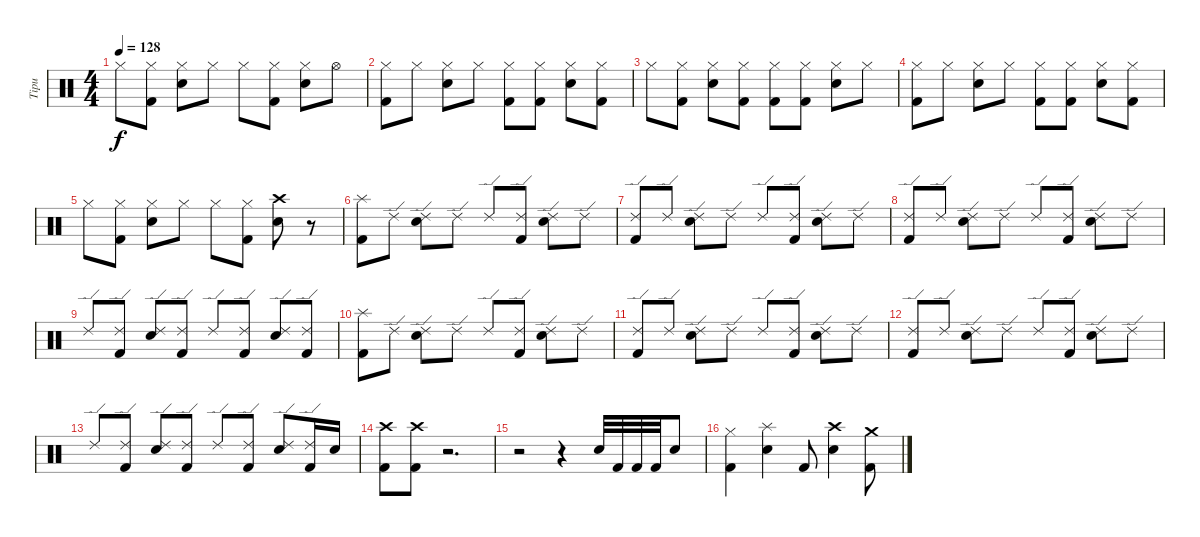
\track ("Tipu" "Tipu") {instrument percussion}
\staff {score}
\articulation defaults
\ts (4 4)
\tempo 128
\clef neutral
\ks c "Hi-Hat (closed)".8{dy f}
("Hi-Hat (closed)" "Kick (hit) 2").8 ("Hi-Hat (closed)" "Electric Snare (hit)").8 "Hi-Hat (closed)".8 "Hi-Hat (closed)".8 ("Hi-Hat (closed)" "Kick (hit) 2").8 ("Hi-Hat (closed)" "Electric Snare (hit)").8 "Hi-Hat (open)".8 |
("Hi-Hat (closed)" "Kick (hit) 2").8 "Hi-Hat (closed)".8 ("Hi-Hat (closed)" "Electric Snare (hit)").8 "Hi-Hat (closed)".8 ("Hi-Hat (closed)" "Kick (hit) 2").8 ("Hi-Hat (closed)" "Kick (hit) 2").8 ("Hi-Hat (closed)" "Electric Snare (hit)").8 ("Hi-Hat (closed)" "Kick (hit) 2").8 |
"Hi-Hat (closed)".8 ("Hi-Hat (closed)" "Kick (hit) 2").8 ("Hi-Hat (closed)" "Electric Snare (hit)").8 ("Hi-Hat (closed)" "Kick (hit) 2").8 ("Hi-Hat (closed)" "Kick (hit) 2").8 ("Hi-Hat (closed)" "Kick (hit) 2").8 ("Hi-Hat (closed)" "Electric Snare (hit)").8 "Hi-Hat (closed)".8 |
("Hi-Hat (closed)" "Kick (hit) 2").8 "Hi-Hat (closed)".8 ("Hi-Hat (closed)" "Electric Snare (hit)").8 "Hi-Hat (closed)".8 ("Hi-Hat (closed)" "Kick (hit) 2").8 ("Hi-Hat (closed)" "Kick (hit) 2").8 ("Hi-Hat (closed)" "Electric Snare (hit)").8 ("Hi-Hat (closed)" "Kick (hit) 2").8 |
"Hi-Hat (closed)".8 ("Hi-Hat (closed)" "Kick (hit) 2").8 ("Hi-Hat (closed)" "Electric Snare (hit)").8 "Hi-Hat (closed)".8 "Hi-Hat (closed)".8 ("Hi-Hat (closed)" "Kick (hit) 2").8 ("Crash high (hit)" "Electric Snare (hit)").8 r.8 |
("Splash (hit)" "Kick (hit) 2").8 "Ride (edge) 2".8 ("Ride (edge) 2" "Electric Snare (hit)").8 "Ride (edge) 2".8 "Ride (edge) 2".8 ("Ride (edge) 2" "Kick (hit) 2").8 ("Ride (edge) 2" "Electric Snare (hit)").8 "Ride (edge) 2".8 |
("Ride (edge) 2" "Kick (hit) 2").8 "Ride (edge) 2".8 ("Ride (edge) 2" "Electric Snare (hit)").8 "Ride (edge) 2".8 "Ride (edge) 2".8 ("Ride (edge) 2" "Kick (hit) 2").8 ("Ride (edge) 2" "Electric Snare (hit)").8 "Ride (edge) 2".8 |
("Ride (edge) 2" "Kick (hit) 2").8 "Ride (edge) 2".8 ("Ride (edge) 2" "Electric Snare (hit)").8 "Ride (edge) 2".8 "Ride (edge) 2".8 ("Ride (edge) 2" "Kick (hit) 2").8 ("Ride (edge) 2" "Electric Snare (hit)").8 "Ride (edge) 2".8 |
"Ride (edge) 2".8 ("Ride (edge) 2" "Kick (hit) 2").8 ("Ride (edge) 2" "Electric Snare (hit)").8 ("Ride (edge) 2" "Kick (hit) 2").8 "Ride (edge) 2".8 ("Ride (edge) 2" "Kick (hit) 2").8 ("Ride (edge) 2" "Electric Snare (hit)").8 ("Ride (edge) 2" "Kick (hit) 2").8 |
("Splash (hit)" "Kick (hit) 2").8 "Ride (edge) 2".8 ("Ride (edge) 2" "Electric Snare (hit)").8 "Ride (edge) 2".8 "Ride (edge) 2".8 ("Ride (edge) 2" "Kick (hit) 2").8 ("Ride (edge) 2" "Electric Snare (hit)").8 "Ride (edge) 2".8 |
("Ride (edge) 2" "Kick (hit) 2").8 "Ride (edge) 2".8 ("Ride (edge) 2" "Electric Snare (hit)").8 "Ride (edge) 2".8 "Ride (edge) 2".8 ("Ride (edge) 2" "Kick (hit) 2").8 ("Ride (edge) 2" "Electric Snare (hit)").8 "Ride (edge) 2".8 |
("Ride (edge) 2" "Kick (hit) 2").8 "Ride (edge) 2".8 ("Ride (edge) 2" "Electric Snare (hit)").8 "Ride (edge) 2".8 "Ride (edge) 2".8 ("Ride (edge) 2" "Kick (hit) 2").8 ("Ride (edge) 2" "Electric Snare (hit)").8 "Ride (edge) 2".8 |
"Ride (edge) 2".8 ("Ride (edge) 2" "Kick (hit) 2").8 ("Ride (edge) 2" "Electric Snare (hit)").8 ("Ride (edge) 2" "Kick (hit) 2").8 "Ride (edge) 2".8 ("Ride (edge) 2" "Kick (hit) 2").8 ("Ride (edge) 2" "Electric Snare (hit)").8 ("Ride (edge) 2" "Kick (hit) 2").16 "Electric Snare (hit)".16 |
("Crash high (hit)" "Kick (hit) 2").8 ("Crash high (hit)" "Kick (hit) 2").8 r.2{d} |
r.2 r.4 "Electric Snare (hit)".32 "Kick (hit) 2".32 "Kick (hit) 2".32 "Kick (hit) 2".32 "Electric Snare (hit)".8 |
("Hi-Hat (closed)" "Kick (hit) 2").4 ("Splash (hit)" "Electric Snare (hit)").4 "Kick (hit) 2".8 ("Crash high (hit)" "Electric Snare (hit)").4 ("Crash medium (hit)" "Kick (hit) 2").8
